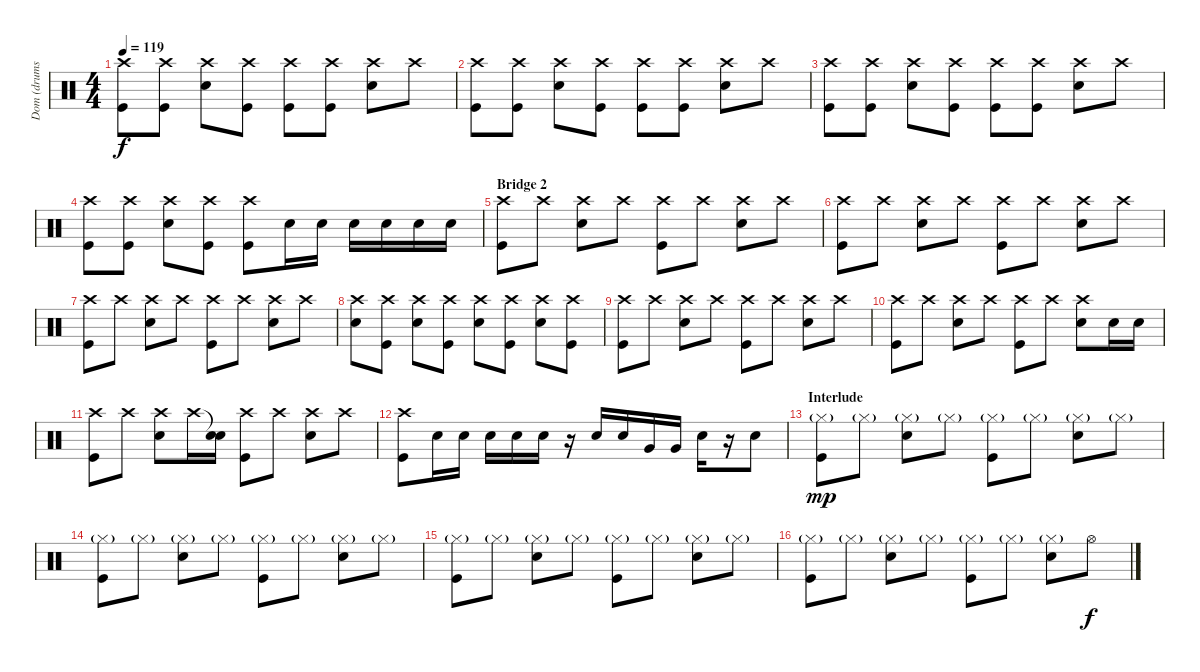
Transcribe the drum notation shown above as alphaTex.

\track ("Dom (drums)" "Dom (drums") {instrument percussion}
\staff {score}
\articulation defaults
\ts (4 4)
\tempo 119
\clef neutral
\ks c
("Crash high (hit)" "Kick (hit)").8{dy f} ("Crash high (hit)" "Kick (hit)").8 ("Crash high (hit)" "Snare (hit) 2").8 ("Crash high (hit)" "Kick (hit)").8 ("Crash high (hit)" "Kick (hit)").8 ("Crash high (hit)" "Kick (hit)").8 ("Crash high (hit)" "Snare (hit) 2").8 "Crash high (hit)".8 |
("Crash high (hit)" "Kick (hit)").8 ("Crash high (hit)" "Kick (hit)").8 ("Crash high (hit)" "Snare (hit) 2").8 ("Crash high (hit)" "Kick (hit)").8 ("Crash high (hit)" "Kick (hit)").8 ("Crash high (hit)" "Kick (hit)").8 ("Crash high (hit)" "Snare (hit) 2").8 "Crash high (hit)".8 |
("Crash high (hit)" "Kick (hit)").8 ("Crash high (hit)" "Kick (hit)").8 ("Crash high (hit)" "Snare (hit) 2").8 ("Crash high (hit)" "Kick (hit)").8 ("Crash high (hit)" "Kick (hit)").8 ("Crash high (hit)" "Kick (hit)").8 ("Crash high (hit)" "Snare (hit) 2").8 "Crash high (hit)".8 |
("Crash high (hit)" "Kick (hit)").8 ("Crash high (hit)" "Kick (hit)").8 ("Crash high (hit)" "Snare (hit) 2").8 ("Crash high (hit)" "Kick (hit)").8 ("Crash high (hit)" "Kick (hit)").8 "Snare (hit) 2".16 "Snare (hit) 2".16 "Snare (hit) 2".16 "Snare (hit) 2".16 "Snare (hit) 2".16 "Snare (hit) 2".16 |
\section ("" "Bridge 2")
("Crash high (hit)" "Kick (hit)").8 "Crash high (hit)".8 ("Crash high (hit)" "Snare (hit) 2").8 "Crash high (hit)".8 ("Crash high (hit)" "Kick (hit)").8 "Crash high (hit)".8 ("Crash high (hit)" "Snare (hit) 2").8 "Crash high (hit)".8 |
("Crash high (hit)" "Kick (hit)").8 "Crash high (hit)".8 ("Crash high (hit)" "Snare (hit) 2").8 "Crash high (hit)".8 ("Crash high (hit)" "Kick (hit)").8 "Crash high (hit)".8 ("Crash high (hit)" "Snare (hit) 2").8 "Crash high (hit)".8 |
("Crash high (hit)" "Kick (hit)").8 "Crash high (hit)".8 ("Crash high (hit)" "Snare (hit) 2").8 "Crash high (hit)".8 ("Crash high (hit)" "Kick (hit)").8 "Crash high (hit)".8 ("Crash high (hit)" "Snare (hit) 2").8 "Crash high (hit)".8 |
("Crash high (hit)" "Snare (hit) 2").8 ("Crash high (hit)" "Kick (hit)").8 ("Crash high (hit)" "Snare (hit) 2").8 ("Crash high (hit)" "Kick (hit)").8 ("Crash high (hit)" "Snare (hit) 2").8 ("Crash high (hit)" "Kick (hit)").8 ("Crash high (hit)" "Snare (hit) 2").8 ("Crash high (hit)" "Kick (hit)").8 |
("Crash high (hit)" "Kick (hit)").8 "Crash high (hit)".8 ("Crash high (hit)" "Snare (hit) 2").8 "Crash high (hit)".8 ("Crash high (hit)" "Kick (hit)").8 "Crash high (hit)".8 ("Crash high (hit)" "Snare (hit) 2").8 "Crash high (hit)".8 |
("Crash high (hit)" "Kick (hit)").8 "Crash high (hit)".8 ("Crash high (hit)" "Snare (hit) 2").8 "Crash high (hit)".8 ("Crash high (hit)" "Kick (hit)").8 "Crash high (hit)".8 ("Crash high (hit)" "Snare (hit) 2").8 "Snare (hit) 2".16 "Snare (hit) 2".16 |
("Crash high (hit)" "Kick (hit)").8 "Crash high (hit)".8 ("Crash high (hit)" "Snare (hit) 2").8 "Crash high (hit)".16 ("Snare (hit)"{t} "Snare (hit) 2").16 ("Crash high (hit)" "Kick (hit)").8 "Crash high (hit)".8 ("Crash high (hit)" "Snare (hit) 2").8 "Crash high (hit)".8 |
("Crash high (hit)" "Kick (hit)").8 "Snare (hit) 2".16 "Snare (hit) 2".16 "Snare (hit) 2".16 "Snare (hit) 2".16 "Snare (hit) 2".16 r.16 "Snare (hit) 2".16 "Snare (hit) 2".16 "Very Low Tom (hit)".16 "Very Low Tom (hit)".16 "Snare (hit) 2".16 r.16 "Snare (hit) 2".8 |
\section ("" "Interlude")
("Hi-Hat (closed)"{g} "Kick (hit)").8{dy mp} "Hi-Hat (closed)"{g}.8 ("Hi-Hat (closed)"{g} "Snare (hit) 2").8 "Hi-Hat (closed)"{g}.8 ("Hi-Hat (closed)"{g} "Kick (hit)").8 "Hi-Hat (closed)"{g}.8 ("Hi-Hat (closed)"{g} "Snare (hit) 2").8 "Hi-Hat (closed)"{g}.8 |
("Hi-Hat (closed)"{g} "Kick (hit)").8 "Hi-Hat (closed)"{g}.8 ("Hi-Hat (closed)"{g} "Snare (hit) 2").8 "Hi-Hat (closed)"{g}.8 ("Hi-Hat (closed)"{g} "Kick (hit)").8 "Hi-Hat (closed)"{g}.8 ("Hi-Hat (closed)"{g} "Snare (hit) 2").8 "Hi-Hat (closed)"{g}.8 |
("Hi-Hat (closed)"{g} "Kick (hit)").8 "Hi-Hat (closed)"{g}.8 ("Hi-Hat (closed)"{g} "Snare (hit) 2").8 "Hi-Hat (closed)"{g}.8 ("Hi-Hat (closed)"{g} "Kick (hit)").8 "Hi-Hat (closed)"{g}.8 ("Hi-Hat (closed)"{g} "Snare (hit) 2").8 "Hi-Hat (closed)"{g}.8 |
("Hi-Hat (closed)"{g} "Kick (hit)").8 "Hi-Hat (closed)"{g}.8 ("Hi-Hat (closed)"{g} "Snare (hit) 2").8 "Hi-Hat (closed)"{g}.8 ("Hi-Hat (closed)"{g} "Kick (hit)").8 "Hi-Hat (closed)"{g}.8 ("Hi-Hat (closed)"{g} "Snare (hit) 2").8 "Hi-Hat (open)".8{dy f}
